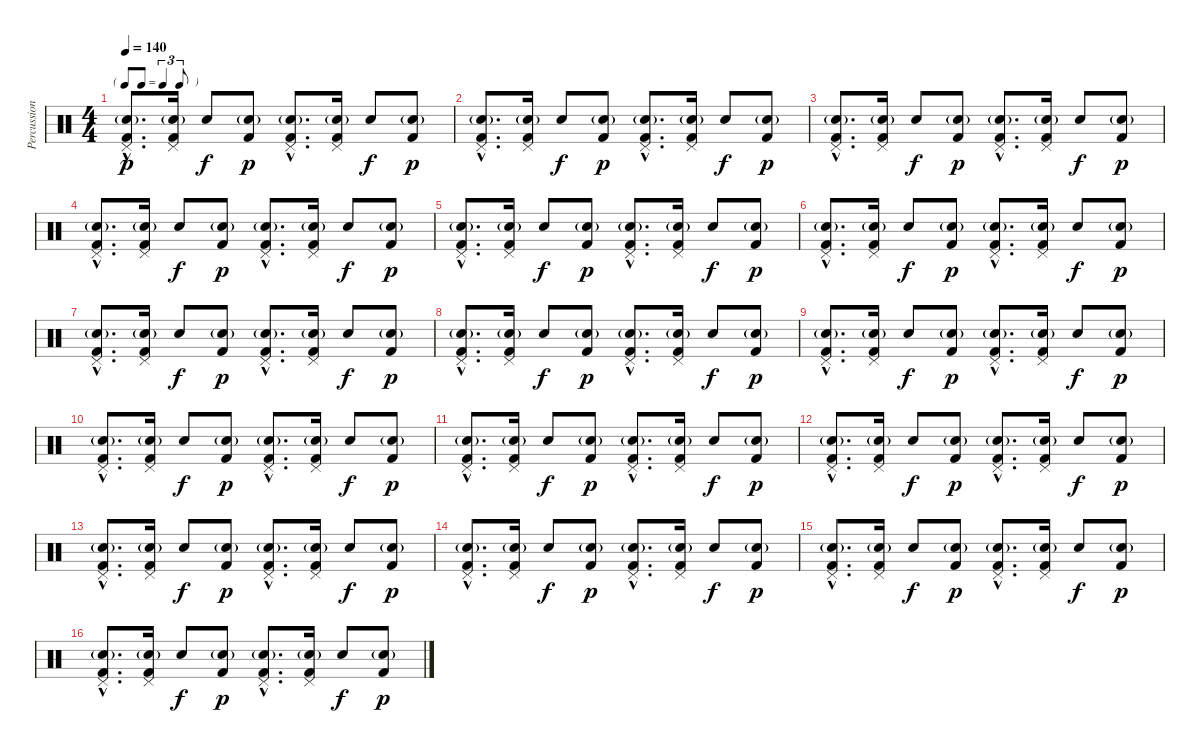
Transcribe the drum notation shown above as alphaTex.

\track ("Percussion" "Percussion") {instrument percussion}
\staff {score}
\articulation defaults
\ts (4 4)
\tf triplet8th
\tempo 140
\clef neutral
\ks c
("Pedal Hi-Hat (hit)"{hac} "Snare (hit) 2"{g hac} "Kick (hit) 2"{hac}).8{d dy p} ("Pedal Hi-Hat (hit)" "Snare (hit) 2"{g} "Kick (hit) 2").16 "Snare (hit) 2".8{dy f} ("Snare (hit) 2"{g} "Kick (hit) 2").8{dy p} ("Pedal Hi-Hat (hit)"{hac} "Snare (hit) 2"{g hac} "Kick (hit) 2"{hac}).8{d} ("Pedal Hi-Hat (hit)" "Snare (hit) 2"{g} "Kick (hit) 2").16 "Snare (hit) 2".8{dy f} ("Snare (hit) 2"{g} "Kick (hit) 2").8{dy p} |
("Pedal Hi-Hat (hit)"{hac} "Snare (hit) 2"{g hac} "Kick (hit) 2"{hac}).8{d} ("Pedal Hi-Hat (hit)" "Snare (hit) 2"{g} "Kick (hit) 2").16 "Snare (hit) 2".8{dy f} ("Snare (hit) 2"{g} "Kick (hit) 2").8{dy p} ("Pedal Hi-Hat (hit)"{hac} "Snare (hit) 2"{g hac} "Kick (hit) 2"{hac}).8{d} ("Pedal Hi-Hat (hit)" "Snare (hit) 2"{g} "Kick (hit) 2").16 "Snare (hit) 2".8{dy f} ("Snare (hit) 2"{g} "Kick (hit) 2").8{dy p} |
("Pedal Hi-Hat (hit)"{hac} "Snare (hit) 2"{g hac} "Kick (hit) 2"{hac}).8{d} ("Pedal Hi-Hat (hit)" "Snare (hit) 2"{g} "Kick (hit) 2").16 "Snare (hit) 2".8{dy f} ("Snare (hit) 2"{g} "Kick (hit) 2").8{dy p} ("Pedal Hi-Hat (hit)"{hac} "Snare (hit) 2"{g hac} "Kick (hit) 2"{hac}).8{d} ("Pedal Hi-Hat (hit)" "Snare (hit) 2"{g} "Kick (hit) 2").16 "Snare (hit) 2".8{dy f} ("Snare (hit) 2"{g} "Kick (hit) 2").8{dy p} |
("Pedal Hi-Hat (hit)"{hac} "Snare (hit) 2"{g hac} "Kick (hit) 2"{hac}).8{d} ("Pedal Hi-Hat (hit)" "Snare (hit) 2"{g} "Kick (hit) 2").16 "Snare (hit) 2".8{dy f} ("Snare (hit) 2"{g} "Kick (hit) 2").8{dy p} ("Pedal Hi-Hat (hit)"{hac} "Snare (hit) 2"{g hac} "Kick (hit) 2"{hac}).8{d} ("Pedal Hi-Hat (hit)" "Snare (hit) 2"{g} "Kick (hit) 2").16 "Snare (hit) 2".8{dy f} ("Snare (hit) 2"{g} "Kick (hit) 2").8{dy p} |
("Pedal Hi-Hat (hit)"{hac} "Snare (hit) 2"{g hac} "Kick (hit) 2"{hac}).8{d} ("Pedal Hi-Hat (hit)" "Snare (hit) 2"{g} "Kick (hit) 2").16 "Snare (hit) 2".8{dy f} ("Snare (hit) 2"{g} "Kick (hit) 2").8{dy p} ("Pedal Hi-Hat (hit)"{hac} "Snare (hit) 2"{g hac} "Kick (hit) 2"{hac}).8{d} ("Pedal Hi-Hat (hit)" "Snare (hit) 2"{g} "Kick (hit) 2").16 "Snare (hit) 2".8{dy f} ("Snare (hit) 2"{g} "Kick (hit) 2").8{dy p} |
("Pedal Hi-Hat (hit)"{hac} "Snare (hit) 2"{g hac} "Kick (hit) 2"{hac}).8{d} ("Pedal Hi-Hat (hit)" "Snare (hit) 2"{g} "Kick (hit) 2").16 "Snare (hit) 2".8{dy f} ("Snare (hit) 2"{g} "Kick (hit) 2").8{dy p} ("Pedal Hi-Hat (hit)"{hac} "Snare (hit) 2"{g hac} "Kick (hit) 2"{hac}).8{d} ("Pedal Hi-Hat (hit)" "Snare (hit) 2"{g} "Kick (hit) 2").16 "Snare (hit) 2".8{dy f} ("Snare (hit) 2"{g} "Kick (hit) 2").8{dy p} |
("Pedal Hi-Hat (hit)"{hac} "Snare (hit) 2"{g hac} "Kick (hit) 2"{hac}).8{d} ("Pedal Hi-Hat (hit)" "Snare (hit) 2"{g} "Kick (hit) 2").16 "Snare (hit) 2".8{dy f} ("Snare (hit) 2"{g} "Kick (hit) 2").8{dy p} ("Pedal Hi-Hat (hit)"{hac} "Snare (hit) 2"{g hac} "Kick (hit) 2"{hac}).8{d} ("Pedal Hi-Hat (hit)" "Snare (hit) 2"{g} "Kick (hit) 2").16 "Snare (hit) 2".8{dy f} ("Snare (hit) 2"{g} "Kick (hit) 2").8{dy p} |
("Pedal Hi-Hat (hit)"{hac} "Snare (hit) 2"{g hac} "Kick (hit) 2"{hac}).8{d} ("Pedal Hi-Hat (hit)" "Snare (hit) 2"{g} "Kick (hit) 2").16 "Snare (hit) 2".8{dy f} ("Snare (hit) 2"{g} "Kick (hit) 2").8{dy p} ("Pedal Hi-Hat (hit)"{hac} "Snare (hit) 2"{g hac} "Kick (hit) 2"{hac}).8{d} ("Pedal Hi-Hat (hit)" "Snare (hit) 2"{g} "Kick (hit) 2").16 "Snare (hit) 2".8{dy f} ("Snare (hit) 2"{g} "Kick (hit) 2").8{dy p} |
("Pedal Hi-Hat (hit)"{hac} "Snare (hit) 2"{g hac} "Kick (hit) 2"{hac}).8{d} ("Pedal Hi-Hat (hit)" "Snare (hit) 2"{g} "Kick (hit) 2").16 "Snare (hit) 2".8{dy f} ("Snare (hit) 2"{g} "Kick (hit) 2").8{dy p} ("Pedal Hi-Hat (hit)"{hac} "Snare (hit) 2"{g hac} "Kick (hit) 2"{hac}).8{d} ("Pedal Hi-Hat (hit)" "Snare (hit) 2"{g} "Kick (hit) 2").16 "Snare (hit) 2".8{dy f} ("Snare (hit) 2"{g} "Kick (hit) 2").8{dy p} |
("Pedal Hi-Hat (hit)"{hac} "Snare (hit) 2"{g hac} "Kick (hit) 2"{hac}).8{d} ("Pedal Hi-Hat (hit)" "Snare (hit) 2"{g} "Kick (hit) 2").16 "Snare (hit) 2".8{dy f} ("Snare (hit) 2"{g} "Kick (hit) 2").8{dy p} ("Pedal Hi-Hat (hit)"{hac} "Snare (hit) 2"{g hac} "Kick (hit) 2"{hac}).8{d} ("Pedal Hi-Hat (hit)" "Snare (hit) 2"{g} "Kick (hit) 2").16 "Snare (hit) 2".8{dy f} ("Snare (hit) 2"{g} "Kick (hit) 2").8{dy p} |
("Pedal Hi-Hat (hit)"{hac} "Snare (hit) 2"{g hac} "Kick (hit) 2"{hac}).8{d} ("Pedal Hi-Hat (hit)" "Snare (hit) 2"{g} "Kick (hit) 2").16 "Snare (hit) 2".8{dy f} ("Snare (hit) 2"{g} "Kick (hit) 2").8{dy p} ("Pedal Hi-Hat (hit)"{hac} "Snare (hit) 2"{g hac} "Kick (hit) 2"{hac}).8{d} ("Pedal Hi-Hat (hit)" "Snare (hit) 2"{g} "Kick (hit) 2").16 "Snare (hit) 2".8{dy f} ("Snare (hit) 2"{g} "Kick (hit) 2").8{dy p} |
("Pedal Hi-Hat (hit)"{hac} "Snare (hit) 2"{g hac} "Kick (hit) 2"{hac}).8{d} ("Pedal Hi-Hat (hit)" "Snare (hit) 2"{g} "Kick (hit) 2").16 "Snare (hit) 2".8{dy f} ("Snare (hit) 2"{g} "Kick (hit) 2").8{dy p} ("Pedal Hi-Hat (hit)"{hac} "Snare (hit) 2"{g hac} "Kick (hit) 2"{hac}).8{d} ("Pedal Hi-Hat (hit)" "Snare (hit) 2"{g} "Kick (hit) 2").16 "Snare (hit) 2".8{dy f} ("Snare (hit) 2"{g} "Kick (hit) 2").8{dy p} |
("Pedal Hi-Hat (hit)"{hac} "Snare (hit) 2"{g hac} "Kick (hit) 2"{hac}).8{d} ("Pedal Hi-Hat (hit)" "Snare (hit) 2"{g} "Kick (hit) 2").16 "Snare (hit) 2".8{dy f} ("Snare (hit) 2"{g} "Kick (hit) 2").8{dy p} ("Pedal Hi-Hat (hit)"{hac} "Snare (hit) 2"{g hac} "Kick (hit) 2"{hac}).8{d} ("Pedal Hi-Hat (hit)" "Snare (hit) 2"{g} "Kick (hit) 2").16 "Snare (hit) 2".8{dy f} ("Snare (hit) 2"{g} "Kick (hit) 2").8{dy p} |
("Pedal Hi-Hat (hit)"{hac} "Snare (hit) 2"{g hac} "Kick (hit) 2"{hac}).8{d} ("Pedal Hi-Hat (hit)" "Snare (hit) 2"{g} "Kick (hit) 2").16 "Snare (hit) 2".8{dy f} ("Snare (hit) 2"{g} "Kick (hit) 2").8{dy p} ("Pedal Hi-Hat (hit)"{hac} "Snare (hit) 2"{g hac} "Kick (hit) 2"{hac}).8{d} ("Pedal Hi-Hat (hit)" "Snare (hit) 2"{g} "Kick (hit) 2").16 "Snare (hit) 2".8{dy f} ("Snare (hit) 2"{g} "Kick (hit) 2").8{dy p} |
("Pedal Hi-Hat (hit)"{hac} "Snare (hit) 2"{g hac} "Kick (hit) 2"{hac}).8{d} ("Pedal Hi-Hat (hit)" "Snare (hit) 2"{g} "Kick (hit) 2").16 "Snare (hit) 2".8{dy f} ("Snare (hit) 2"{g} "Kick (hit) 2").8{dy p} ("Pedal Hi-Hat (hit)"{hac} "Snare (hit) 2"{g hac} "Kick (hit) 2"{hac}).8{d} ("Pedal Hi-Hat (hit)" "Snare (hit) 2"{g} "Kick (hit) 2").16 "Snare (hit) 2".8{dy f} ("Snare (hit) 2"{g} "Kick (hit) 2").8{dy p} |
("Pedal Hi-Hat (hit)"{hac} "Snare (hit) 2"{g hac} "Kick (hit) 2"{hac}).8{d} ("Pedal Hi-Hat (hit)" "Snare (hit) 2"{g} "Kick (hit) 2").16 "Snare (hit) 2".8{dy f} ("Snare (hit) 2"{g} "Kick (hit) 2").8{dy p} ("Pedal Hi-Hat (hit)"{hac} "Snare (hit) 2"{g hac} "Kick (hit) 2"{hac}).8{d} ("Pedal Hi-Hat (hit)" "Snare (hit) 2"{g} "Kick (hit) 2").16 "Snare (hit) 2".8{dy f} ("Snare (hit) 2"{g} "Kick (hit) 2").8{dy p}
